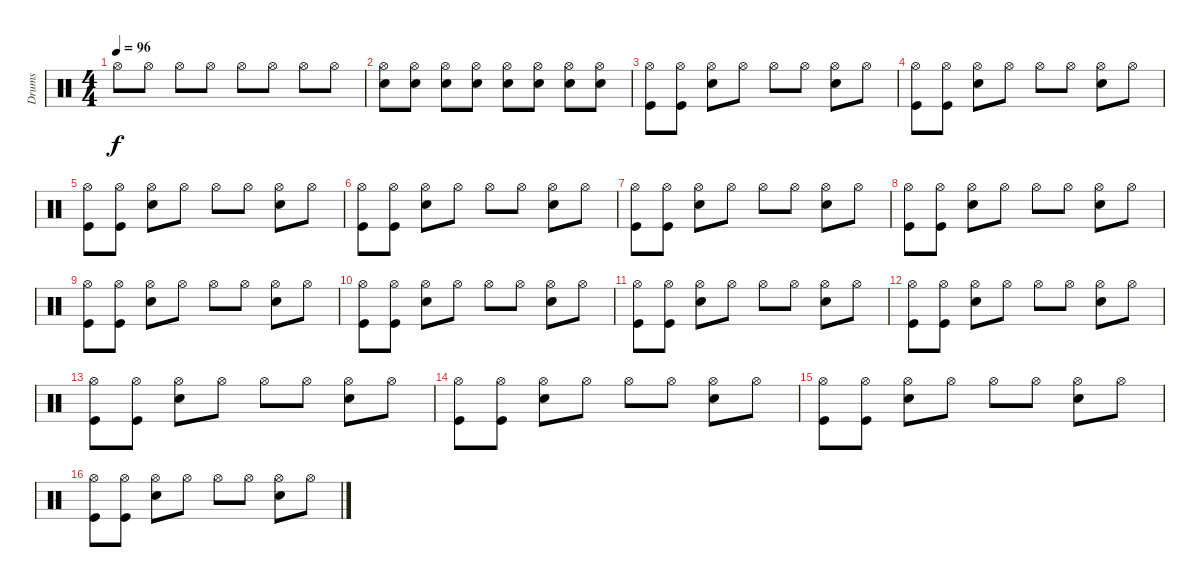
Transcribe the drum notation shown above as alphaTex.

\track ("Drums" "Drums") {instrument percussion}
\staff {score}
\articulation defaults
\ts (4 4)
\tempo 96
\clef neutral
\ks c "Hi-Hat (open)".8{dy f} "Hi-Hat (open)".8 "Hi-Hat (open)".8 "Hi-Hat (open)".8 "Hi-Hat (open)".8 "Hi-Hat (open)".8 "Hi-Hat (open)".8 "Hi-Hat (open)".8
|
("Electric Snare (hit)" "Hi-Hat (open)").8 ("Electric Snare (hit)" "Hi-Hat (open)").8 ("Electric Snare (hit)" "Hi-Hat (open)").8 ("Electric Snare (hit)" "Hi-Hat (open)").8 ("Electric Snare (hit)" "Hi-Hat (open)").8 ("Electric Snare (hit)" "Hi-Hat (open)").8 ("Electric Snare (hit)" "Hi-Hat (open)").8 ("Electric Snare (hit)" "Hi-Hat (open)").8 |
("Hi-Hat (open)" "Kick (hit)").8 ("Hi-Hat (open)" "Kick (hit)").8 ("Hi-Hat (open)" "Electric Snare (hit)").8 "Hi-Hat (open)".8 "Hi-Hat (open)".8 "Hi-Hat (open)".8 ("Hi-Hat (open)" "Electric Snare (hit)").8 "Hi-Hat (open)".8 |
("Hi-Hat (open)" "Kick (hit)").8 ("Hi-Hat (open)" "Kick (hit)").8 ("Hi-Hat (open)" "Electric Snare (hit)").8 "Hi-Hat (open)".8 "Hi-Hat (open)".8 "Hi-Hat (open)".8 ("Hi-Hat (open)" "Electric Snare (hit)").8 "Hi-Hat (open)".8 |
("Hi-Hat (open)" "Kick (hit)").8 ("Hi-Hat (open)" "Kick (hit)").8 ("Hi-Hat (open)" "Electric Snare (hit)").8 "Hi-Hat (open)".8 "Hi-Hat (open)".8 "Hi-Hat (open)".8 ("Hi-Hat (open)" "Electric Snare (hit)").8 "Hi-Hat (open)".8 |
("Hi-Hat (open)" "Kick (hit)").8 ("Hi-Hat (open)" "Kick (hit)").8 ("Hi-Hat (open)" "Electric Snare (hit)").8 "Hi-Hat (open)".8 "Hi-Hat (open)".8 "Hi-Hat (open)".8 ("Hi-Hat (open)" "Electric Snare (hit)").8 "Hi-Hat (open)".8 |
("Hi-Hat (open)" "Kick (hit)").8 ("Hi-Hat (open)" "Kick (hit)").8 ("Hi-Hat (open)" "Electric Snare (hit)").8 "Hi-Hat (open)".8 "Hi-Hat (open)".8 "Hi-Hat (open)".8 ("Hi-Hat (open)" "Electric Snare (hit)").8 "Hi-Hat (open)".8 |
("Hi-Hat (open)" "Kick (hit)").8 ("Hi-Hat (open)" "Kick (hit)").8 ("Hi-Hat (open)" "Electric Snare (hit)").8 "Hi-Hat (open)".8 "Hi-Hat (open)".8 "Hi-Hat (open)".8 ("Hi-Hat (open)" "Electric Snare (hit)").8 "Hi-Hat (open)".8 |
("Hi-Hat (open)" "Kick (hit)").8 ("Hi-Hat (open)" "Kick (hit)").8 ("Hi-Hat (open)" "Electric Snare (hit)").8 "Hi-Hat (open)".8 "Hi-Hat (open)".8 "Hi-Hat (open)".8 ("Hi-Hat (open)" "Electric Snare (hit)").8 "Hi-Hat (open)".8 |
("Hi-Hat (open)" "Kick (hit)").8 ("Hi-Hat (open)" "Kick (hit)").8 ("Hi-Hat (open)" "Electric Snare (hit)").8 "Hi-Hat (open)".8 "Hi-Hat (open)".8 "Hi-Hat (open)".8 ("Hi-Hat (open)" "Electric Snare (hit)").8 "Hi-Hat (open)".8 |
("Hi-Hat (open)" "Kick (hit)").8 ("Hi-Hat (open)" "Kick (hit)").8 ("Hi-Hat (open)" "Electric Snare (hit)").8 "Hi-Hat (open)".8 "Hi-Hat (open)".8 "Hi-Hat (open)".8 ("Hi-Hat (open)" "Electric Snare (hit)").8 "Hi-Hat (open)".8 |
("Hi-Hat (open)" "Kick (hit)").8 ("Hi-Hat (open)" "Kick (hit)").8 ("Hi-Hat (open)" "Electric Snare (hit)").8 "Hi-Hat (open)".8 "Hi-Hat (open)".8 "Hi-Hat (open)".8 ("Hi-Hat (open)" "Electric Snare (hit)").8 "Hi-Hat (open)".8 |
("Hi-Hat (open)" "Kick (hit)").8 ("Hi-Hat (open)" "Kick (hit)").8 ("Hi-Hat (open)" "Electric Snare (hit)").8 "Hi-Hat (open)".8 "Hi-Hat (open)".8 "Hi-Hat (open)".8 ("Hi-Hat (open)" "Electric Snare (hit)").8 "Hi-Hat (open)".8 |
("Hi-Hat (open)" "Kick (hit)").8 ("Hi-Hat (open)" "Kick (hit)").8 ("Hi-Hat (open)" "Electric Snare (hit)").8 "Hi-Hat (open)".8 "Hi-Hat (open)".8 "Hi-Hat (open)".8 ("Hi-Hat (open)" "Electric Snare (hit)").8 "Hi-Hat (open)".8 |
("Hi-Hat (open)" "Kick (hit)").8 ("Hi-Hat (open)" "Kick (hit)").8 ("Hi-Hat (open)" "Electric Snare (hit)").8 "Hi-Hat (open)".8 "Hi-Hat (open)".8 "Hi-Hat (open)".8 ("Hi-Hat (open)" "Electric Snare (hit)").8 "Hi-Hat (open)".8 |
("Hi-Hat (open)" "Kick (hit)").8 ("Hi-Hat (open)" "Kick (hit)").8 ("Hi-Hat (open)" "Electric Snare (hit)").8 "Hi-Hat (open)".8 "Hi-Hat (open)".8 "Hi-Hat (open)".8 ("Hi-Hat (open)" "Electric Snare (hit)").8 "Hi-Hat (open)".8
